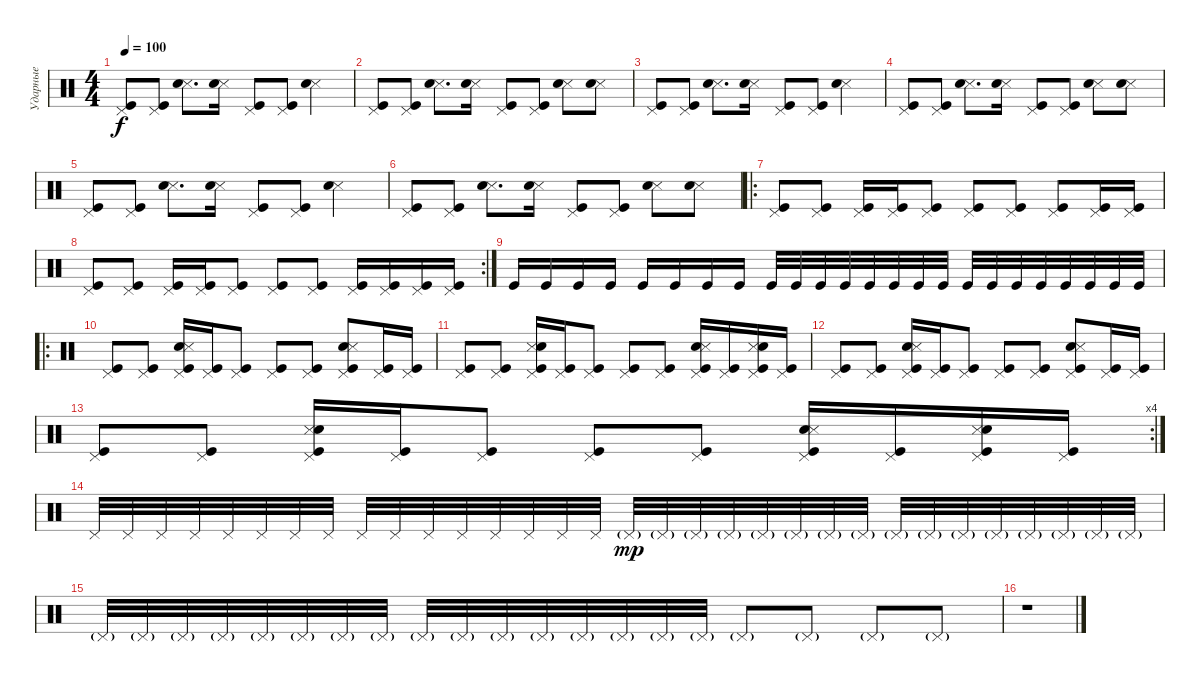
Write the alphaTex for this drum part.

\track ("Ударные" "Ударные") {instrument percussion}
\staff {score}
\articulation defaults
\ts (4 4)
\tempo 100
\clef neutral
\ks c
("Kick (hit)" "Pedal Hi-Hat (hit)").8{dy f} ("Pedal Hi-Hat (hit)" "Kick (hit)").8 ("Snare (side stick) 3" "Snare (hit) 2").8{d} ("Snare (side stick) 3" "Snare (hit) 2").16 ("Kick (hit)" "Pedal Hi-Hat (hit)").8 ("Pedal Hi-Hat (hit)" "Kick (hit)").8 ("Snare (side stick) 3" "Snare (hit) 2").4 |
("Kick (hit)" "Pedal Hi-Hat (hit)").8 ("Pedal Hi-Hat (hit)" "Kick (hit)").8 ("Snare (side stick) 3" "Snare (hit) 2").8{d} ("Snare (side stick) 3" "Snare (hit) 2").16 ("Kick (hit)" "Pedal Hi-Hat (hit)").8 ("Pedal Hi-Hat (hit)" "Kick (hit)").8 ("Snare (side stick) 3" "Snare (hit) 2").8 ("Snare (side stick) 3" "Snare (hit) 2").8 |
("Kick (hit)" "Pedal Hi-Hat (hit)").8 ("Pedal Hi-Hat (hit)" "Kick (hit)").8 ("Snare (side stick) 3" "Snare (hit) 2").8{d} ("Snare (side stick) 3" "Snare (hit) 2").16 ("Kick (hit)" "Pedal Hi-Hat (hit)").8 ("Pedal Hi-Hat (hit)" "Kick (hit)").8 ("Snare (side stick) 3" "Snare (hit) 2").4 |
("Kick (hit)" "Pedal Hi-Hat (hit)").8 ("Pedal Hi-Hat (hit)" "Kick (hit)").8 ("Snare (side stick) 3" "Snare (hit) 2").8{d} ("Snare (side stick) 3" "Snare (hit) 2").16 ("Kick (hit)" "Pedal Hi-Hat (hit)").8 ("Pedal Hi-Hat (hit)" "Kick (hit)").8 ("Snare (side stick) 3" "Snare (hit) 2").8 ("Snare (side stick) 3" "Snare (hit) 2").8 |
("Kick (hit)" "Pedal Hi-Hat (hit)").8 ("Pedal Hi-Hat (hit)" "Kick (hit)").8 ("Snare (side stick) 3" "Snare (hit) 2").8{d} ("Snare (side stick) 3" "Snare (hit) 2").16 ("Kick (hit)" "Pedal Hi-Hat (hit)").8 ("Pedal Hi-Hat (hit)" "Kick (hit)").8 ("Snare (side stick) 3" "Snare (hit) 2").4 |
("Kick (hit)" "Pedal Hi-Hat (hit)").8 ("Pedal Hi-Hat (hit)" "Kick (hit)").8 ("Snare (side stick) 3" "Snare (hit) 2").8{d} ("Snare (side stick) 3" "Snare (hit) 2").16 ("Kick (hit)" "Pedal Hi-Hat (hit)").8 ("Pedal Hi-Hat (hit)" "Kick (hit)").8 ("Snare (side stick) 3" "Snare (hit) 2").8 ("Snare (side stick) 3" "Snare (hit) 2").8 |
\ro
("Kick (hit)" "Pedal Hi-Hat (hit)").8 ("Kick (hit)" "Pedal Hi-Hat (hit)").8 ("Kick (hit)" "Pedal Hi-Hat (hit)").16 ("Kick (hit)" "Pedal Hi-Hat (hit)").16 ("Kick (hit)" "Pedal Hi-Hat (hit)").8 ("Kick (hit)" "Pedal Hi-Hat (hit)").8 ("Kick (hit)" "Pedal Hi-Hat (hit)").8 ("Kick (hit)" "Pedal Hi-Hat (hit)").8 ("Kick (hit)" "Pedal Hi-Hat (hit)").16 ("Kick (hit)" "Pedal Hi-Hat (hit)").16 |
\rc 2
("Kick (hit)" "Pedal Hi-Hat (hit)").8 ("Kick (hit)" "Pedal Hi-Hat (hit)").8 ("Kick (hit)" "Pedal Hi-Hat (hit)").16 ("Kick (hit)" "Pedal Hi-Hat (hit)").16 ("Kick (hit)" "Pedal Hi-Hat (hit)").8 ("Kick (hit)" "Pedal Hi-Hat (hit)").8 ("Kick (hit)" "Pedal Hi-Hat (hit)").8 ("Kick (hit)" "Pedal Hi-Hat (hit)").16 ("Kick (hit)" "Pedal Hi-Hat (hit)").16 ("Kick (hit)" "Pedal Hi-Hat (hit)").16 ("Kick (hit)" "Pedal Hi-Hat (hit)").16 |
"Kick (hit)".16 "Kick (hit)".16 "Kick (hit)".16 "Kick (hit)".16 "Kick (hit)".16 "Kick (hit)".16 "Kick (hit)".16 "Kick (hit)".16 "Kick (hit)".32 "Kick (hit)".32 "Kick (hit)".32 "Kick (hit)".32 "Kick (hit)".32 "Kick (hit)".32 "Kick (hit)".32 "Kick (hit)".32 "Kick (hit)".32 "Kick (hit)".32 "Kick (hit)".32 "Kick (hit)".32 "Kick (hit)".32 "Kick (hit)".32 "Kick (hit)".32 "Kick (hit)".32 |
\ro
("Kick (hit)" "Pedal Hi-Hat (hit)").8 ("Kick (hit)" "Pedal Hi-Hat (hit)").8 ("Kick (hit)" "Pedal Hi-Hat (hit)" "Snare (hit) 2" "Snare (side stick) 3").16 ("Kick (hit)" "Pedal Hi-Hat (hit)").16 ("Kick (hit)" "Pedal Hi-Hat (hit)").8 ("Kick (hit)" "Pedal Hi-Hat (hit)").8 ("Kick (hit)" "Pedal Hi-Hat (hit)").8 ("Kick (hit)" "Pedal Hi-Hat (hit)" "Snare (hit) 2" "Snare (side stick) 3").8 ("Kick (hit)" "Pedal Hi-Hat (hit)").16 ("Kick (hit)" "Pedal Hi-Hat (hit)").16 |
("Kick (hit)" "Pedal Hi-Hat (hit)").8 ("Kick (hit)" "Pedal Hi-Hat (hit)").8 ("Kick (hit)" "Pedal Hi-Hat (hit)" "Snare (side stick) 3" "Snare (hit) 2").16 ("Kick (hit)" "Pedal Hi-Hat (hit)").16 ("Kick (hit)" "Pedal Hi-Hat (hit)").8 ("Kick (hit)" "Pedal Hi-Hat (hit)").8 ("Kick (hit)" "Pedal Hi-Hat (hit)").8 ("Kick (hit)" "Pedal Hi-Hat (hit)" "Snare (hit) 2" "Snare (side stick) 3").16 ("Kick (hit)" "Pedal Hi-Hat (hit)").16 ("Kick (hit)" "Pedal Hi-Hat (hit)" "Snare (side stick) 3" "Snare (hit) 2").16 ("Kick (hit)" "Pedal Hi-Hat (hit)").16 |
("Kick (hit)" "Pedal Hi-Hat (hit)").8 ("Kick (hit)" "Pedal Hi-Hat (hit)").8 ("Kick (hit)" "Pedal Hi-Hat (hit)" "Snare (hit) 2" "Snare (side stick) 3").16 ("Kick (hit)" "Pedal Hi-Hat (hit)").16 ("Kick (hit)" "Pedal Hi-Hat (hit)").8 ("Kick (hit)" "Pedal Hi-Hat (hit)").8 ("Kick (hit)" "Pedal Hi-Hat (hit)").8 ("Kick (hit)" "Pedal Hi-Hat (hit)" "Snare (hit) 2" "Snare (side stick) 3").8 ("Kick (hit)" "Pedal Hi-Hat (hit)").16 ("Kick (hit)" "Pedal Hi-Hat (hit)").16 |
\rc 4
("Kick (hit)" "Pedal Hi-Hat (hit)").8 ("Kick (hit)" "Pedal Hi-Hat (hit)").8 ("Kick (hit)" "Pedal Hi-Hat (hit)" "Snare (side stick) 3" "Snare (hit) 2").16 ("Kick (hit)" "Pedal Hi-Hat (hit)").16 ("Kick (hit)" "Pedal Hi-Hat (hit)").8 ("Kick (hit)" "Pedal Hi-Hat (hit)").8 ("Kick (hit)" "Pedal Hi-Hat (hit)").8 ("Kick (hit)" "Pedal Hi-Hat (hit)" "Snare (hit) 2" "Snare (side stick) 3").16 ("Kick (hit)" "Pedal Hi-Hat (hit)").16 ("Kick (hit)" "Pedal Hi-Hat (hit)" "Snare (side stick) 3" "Snare (hit) 2").16 ("Kick (hit)" "Pedal Hi-Hat (hit)").16 |
"Pedal Hi-Hat (hit)".32 "Pedal Hi-Hat (hit)".32 "Pedal Hi-Hat (hit)".32 "Pedal Hi-Hat (hit)".32 "Pedal Hi-Hat (hit)".32 "Pedal Hi-Hat (hit)".32 "Pedal Hi-Hat (hit)".32 "Pedal Hi-Hat (hit)".32 "Pedal Hi-Hat (hit)".32 "Pedal Hi-Hat (hit)".32 "Pedal Hi-Hat (hit)".32 "Pedal Hi-Hat (hit)".32 "Pedal Hi-Hat (hit)".32 "Pedal Hi-Hat (hit)".32 "Pedal Hi-Hat (hit)".32 "Pedal Hi-Hat (hit)".32 "Pedal Hi-Hat (hit)"{g}.32{dy mp} "Pedal Hi-Hat (hit)"{g}.32 "Pedal Hi-Hat (hit)"{g}.32 "Pedal Hi-Hat (hit)"{g}.32 "Pedal Hi-Hat (hit)"{g}.32 "Pedal Hi-Hat (hit)"{g}.32 "Pedal Hi-Hat (hit)"{g}.32 "Pedal Hi-Hat (hit)"{g}.32 "Pedal Hi-Hat (hit)"{g}.32 "Pedal Hi-Hat (hit)"{g}.32 "Pedal Hi-Hat (hit)"{g}.32 "Pedal Hi-Hat (hit)"{g}.32 "Pedal Hi-Hat (hit)"{g}.32 "Pedal Hi-Hat (hit)"{g}.32 "Pedal Hi-Hat (hit)"{g}.32 "Pedal Hi-Hat (hit)"{g}.32 |
"Pedal Hi-Hat (hit)"{g}.32 "Pedal Hi-Hat (hit)"{g}.32 "Pedal Hi-Hat (hit)"{g}.32 "Pedal Hi-Hat (hit)"{g}.32 "Pedal Hi-Hat (hit)"{g}.32 "Pedal Hi-Hat (hit)"{g}.32 "Pedal Hi-Hat (hit)"{g}.32 "Pedal Hi-Hat (hit)"{g}.32 "Pedal Hi-Hat (hit)"{g}.32 "Pedal Hi-Hat (hit)"{g}.32 "Pedal Hi-Hat (hit)"{g}.32 "Pedal Hi-Hat (hit)"{g}.32 "Pedal Hi-Hat (hit)"{g}.32 "Pedal Hi-Hat (hit)"{g}.32 "Pedal Hi-Hat (hit)"{g}.32 "Pedal Hi-Hat (hit)"{g}.32 "Pedal Hi-Hat (hit)"{g}.8 "Pedal Hi-Hat (hit)"{g}.8 "Pedal Hi-Hat (hit)"{g}.8 "Pedal Hi-Hat (hit)"{g}.8 |
r.1
